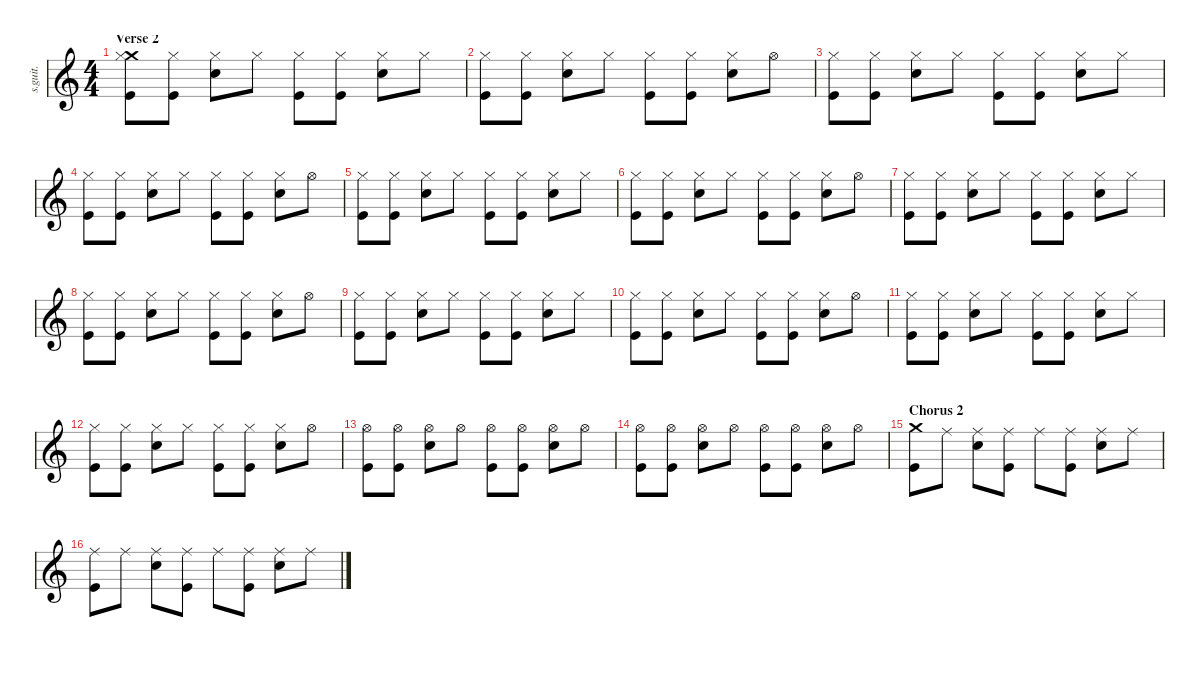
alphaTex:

\defaultSystemsLayout 4
\hideDynamics
\bracketExtendMode nobrackets
\track ("Will Champion" "s.guit.") {instrument percussion}
\staff {score}
\articulation defaults
\ts (4 4)
\section ("" "Verse 2")
\tempo (87 hide)
\clef g2
\ks c
("Crash medium (hit)" "Hi-Hat (closed)" "Kick (hit)").8{lyrics (0 "") lyrics (1 "") lyrics (2 "") lyrics (3 "") lyrics (4 "") dy mf} ("Hi-Hat (closed)" "Kick (hit)").8{lyrics (0 "") lyrics (1 "") lyrics (2 "") lyrics (3 "") lyrics (4 "")} ("Hi-Hat (closed)" "Snare (hit) 2").8{lyrics (0 "") lyrics (1 "") lyrics (2 "") lyrics (3 "") lyrics (4 "")} "Hi-Hat (closed)".8{lyrics (0 "") lyrics (1 "") lyrics (2 "") lyrics (3 "") lyrics (4 "")} ("Hi-Hat (closed)" "Kick (hit)").8{lyrics (0 "") lyrics (1 "") lyrics (2 "") lyrics (3 "") lyrics (4 "")} ("Hi-Hat (closed)" "Kick (hit)").8{lyrics (0 "") lyrics (1 "") lyrics (2 "") lyrics (3 "") lyrics (4 "")} ("Hi-Hat (closed)" "Snare (hit) 2").8{lyrics (0 "") lyrics (1 "") lyrics (2 "") lyrics (3 "") lyrics (4 "")} "Hi-Hat (closed)".8{lyrics (0 "") lyrics (1 "") lyrics (2 "") lyrics (3 "") lyrics (4 "")} |
("Kick (hit)" "Hi-Hat (closed)").8{lyrics (0 "") lyrics (1 "") lyrics (2 "") lyrics (3 "") lyrics (4 "")} ("Kick (hit)" "Hi-Hat (closed)").8{lyrics (0 "") lyrics (1 "") lyrics (2 "") lyrics (3 "") lyrics (4 "")} ("Snare (hit) 2" "Hi-Hat (closed)").8{lyrics (0 "") lyrics (1 "") lyrics (2 "") lyrics (3 "") lyrics (4 "")} "Hi-Hat (closed)".8{lyrics (0 "") lyrics (1 "") lyrics (2 "") lyrics (3 "") lyrics (4 "")} ("Kick (hit)" "Hi-Hat (closed)").8{lyrics (0 "") lyrics (1 "") lyrics (2 "") lyrics (3 "") lyrics (4 "")} ("Kick (hit)" "Hi-Hat (closed)").8{lyrics (0 "") lyrics (1 "") lyrics (2 "") lyrics (3 "") lyrics (4 "")} ("Snare (hit) 2" "Hi-Hat (closed)").8{lyrics (0 "") lyrics (1 "") lyrics (2 "") lyrics (3 "") lyrics (4 "")} "Hi-Hat (open)".8{lyrics (0 "") lyrics (1 "") lyrics (2 "") lyrics (3 "") lyrics (4 "")} |
("Hi-Hat (closed)" "Kick (hit)").8{lyrics (0 "") lyrics (1 "") lyrics (2 "") lyrics (3 "") lyrics (4 "")} ("Hi-Hat (closed)" "Kick (hit)").8{lyrics (0 "") lyrics (1 "") lyrics (2 "") lyrics (3 "") lyrics (4 "")} ("Hi-Hat (closed)" "Snare (hit) 2").8{lyrics (0 "") lyrics (1 "") lyrics (2 "") lyrics (3 "") lyrics (4 "")} "Hi-Hat (closed)".8{lyrics (0 "") lyrics (1 "") lyrics (2 "") lyrics (3 "") lyrics (4 "")} ("Hi-Hat (closed)" "Kick (hit)").8{lyrics (0 "") lyrics (1 "") lyrics (2 "") lyrics (3 "") lyrics (4 "")} ("Hi-Hat (closed)" "Kick (hit)").8{lyrics (0 "") lyrics (1 "") lyrics (2 "") lyrics (3 "") lyrics (4 "")} ("Hi-Hat (closed)" "Snare (hit) 2").8{lyrics (0 "") lyrics (1 "") lyrics (2 "") lyrics (3 "") lyrics (4 "")} "Hi-Hat (closed)".8{lyrics (0 "") lyrics (1 "") lyrics (2 "") lyrics (3 "") lyrics (4 "")} |
("Kick (hit)" "Hi-Hat (closed)").8{lyrics (0 "") lyrics (1 "") lyrics (2 "") lyrics (3 "") lyrics (4 "")} ("Kick (hit)" "Hi-Hat (closed)").8{lyrics (0 "") lyrics (1 "") lyrics (2 "") lyrics (3 "") lyrics (4 "")} ("Snare (hit) 2" "Hi-Hat (closed)").8{lyrics (0 "") lyrics (1 "") lyrics (2 "") lyrics (3 "") lyrics (4 "")} "Hi-Hat (closed)".8{lyrics (0 "") lyrics (1 "") lyrics (2 "") lyrics (3 "") lyrics (4 "")} ("Kick (hit)" "Hi-Hat (closed)").8{lyrics (0 "") lyrics (1 "") lyrics (2 "") lyrics (3 "") lyrics (4 "")} ("Kick (hit)" "Hi-Hat (closed)").8{lyrics (0 "") lyrics (1 "") lyrics (2 "") lyrics (3 "") lyrics (4 "")} ("Snare (hit) 2" "Hi-Hat (closed)").8{lyrics (0 "") lyrics (1 "") lyrics (2 "") lyrics (3 "") lyrics (4 "")} "Hi-Hat (open)".8{lyrics (0 "") lyrics (1 "") lyrics (2 "") lyrics (3 "") lyrics (4 "")} |
("Hi-Hat (closed)" "Kick (hit)").8{lyrics (0 "") lyrics (1 "") lyrics (2 "") lyrics (3 "") lyrics (4 "")} ("Hi-Hat (closed)" "Kick (hit)").8{lyrics (0 "") lyrics (1 "") lyrics (2 "") lyrics (3 "") lyrics (4 "")} ("Hi-Hat (closed)" "Snare (hit) 2").8{lyrics (0 "") lyrics (1 "") lyrics (2 "") lyrics (3 "") lyrics (4 "")} "Hi-Hat (closed)".8{lyrics (0 "") lyrics (1 "") lyrics (2 "") lyrics (3 "") lyrics (4 "")} ("Hi-Hat (closed)" "Kick (hit)").8{lyrics (0 "") lyrics (1 "") lyrics (2 "") lyrics (3 "") lyrics (4 "")} ("Hi-Hat (closed)" "Kick (hit)").8{lyrics (0 "") lyrics (1 "") lyrics (2 "") lyrics (3 "") lyrics (4 "")} ("Hi-Hat (closed)" "Snare (hit) 2").8{lyrics (0 "") lyrics (1 "") lyrics (2 "") lyrics (3 "") lyrics (4 "")} "Hi-Hat (closed)".8{lyrics (0 "") lyrics (1 "") lyrics (2 "") lyrics (3 "") lyrics (4 "")} |
("Kick (hit)" "Hi-Hat (closed)").8{lyrics (0 "") lyrics (1 "") lyrics (2 "") lyrics (3 "") lyrics (4 "")} ("Kick (hit)" "Hi-Hat (closed)").8{lyrics (0 "") lyrics (1 "") lyrics (2 "") lyrics (3 "") lyrics (4 "")} ("Snare (hit) 2" "Hi-Hat (closed)").8{lyrics (0 "") lyrics (1 "") lyrics (2 "") lyrics (3 "") lyrics (4 "")} "Hi-Hat (closed)".8{lyrics (0 "") lyrics (1 "") lyrics (2 "") lyrics (3 "") lyrics (4 "")} ("Kick (hit)" "Hi-Hat (closed)").8{lyrics (0 "") lyrics (1 "") lyrics (2 "") lyrics (3 "") lyrics (4 "")} ("Kick (hit)" "Hi-Hat (closed)").8{lyrics (0 "") lyrics (1 "") lyrics (2 "") lyrics (3 "") lyrics (4 "")} ("Snare (hit) 2" "Hi-Hat (closed)").8{lyrics (0 "") lyrics (1 "") lyrics (2 "") lyrics (3 "") lyrics (4 "")} "Hi-Hat (open)".8{lyrics (0 "") lyrics (1 "") lyrics (2 "") lyrics (3 "") lyrics (4 "")} |
("Hi-Hat (closed)" "Kick (hit)").8{lyrics (0 "") lyrics (1 "") lyrics (2 "") lyrics (3 "") lyrics (4 "")} ("Hi-Hat (closed)" "Kick (hit)").8{lyrics (0 "") lyrics (1 "") lyrics (2 "") lyrics (3 "") lyrics (4 "")} ("Hi-Hat (closed)" "Snare (hit) 2").8{lyrics (0 "") lyrics (1 "") lyrics (2 "") lyrics (3 "") lyrics (4 "")} "Hi-Hat (closed)".8{lyrics (0 "") lyrics (1 "") lyrics (2 "") lyrics (3 "") lyrics (4 "")} ("Hi-Hat (closed)" "Kick (hit)").8{lyrics (0 "") lyrics (1 "") lyrics (2 "") lyrics (3 "") lyrics (4 "")} ("Hi-Hat (closed)" "Kick (hit)").8{lyrics (0 "") lyrics (1 "") lyrics (2 "") lyrics (3 "") lyrics (4 "")} ("Hi-Hat (closed)" "Snare (hit) 2").8{lyrics (0 "") lyrics (1 "") lyrics (2 "") lyrics (3 "") lyrics (4 "")} "Hi-Hat (closed)".8{lyrics (0 "") lyrics (1 "") lyrics (2 "") lyrics (3 "") lyrics (4 "")} |
("Kick (hit)" "Hi-Hat (closed)").8{lyrics (0 "") lyrics (1 "") lyrics (2 "") lyrics (3 "") lyrics (4 "")} ("Kick (hit)" "Hi-Hat (closed)").8{lyrics (0 "") lyrics (1 "") lyrics (2 "") lyrics (3 "") lyrics (4 "")} ("Snare (hit) 2" "Hi-Hat (closed)").8{lyrics (0 "") lyrics (1 "") lyrics (2 "") lyrics (3 "") lyrics (4 "")} "Hi-Hat (closed)".8{lyrics (0 "") lyrics (1 "") lyrics (2 "") lyrics (3 "") lyrics (4 "")} ("Kick (hit)" "Hi-Hat (closed)").8{lyrics (0 "") lyrics (1 "") lyrics (2 "") lyrics (3 "") lyrics (4 "")} ("Kick (hit)" "Hi-Hat (closed)").8{lyrics (0 "") lyrics (1 "") lyrics (2 "") lyrics (3 "") lyrics (4 "")} ("Snare (hit) 2" "Hi-Hat (closed)").8{lyrics (0 "") lyrics (1 "") lyrics (2 "") lyrics (3 "") lyrics (4 "")} "Hi-Hat (open)".8{lyrics (0 "") lyrics (1 "") lyrics (2 "") lyrics (3 "") lyrics (4 "")} |
("Hi-Hat (closed)" "Kick (hit)").8{lyrics (0 "") lyrics (1 "") lyrics (2 "") lyrics (3 "") lyrics (4 "")} ("Hi-Hat (closed)" "Kick (hit)").8{lyrics (0 "") lyrics (1 "") lyrics (2 "") lyrics (3 "") lyrics (4 "")} ("Hi-Hat (closed)" "Snare (hit) 2").8{lyrics (0 "") lyrics (1 "") lyrics (2 "") lyrics (3 "") lyrics (4 "")} "Hi-Hat (closed)".8{lyrics (0 "") lyrics (1 "") lyrics (2 "") lyrics (3 "") lyrics (4 "")} ("Hi-Hat (closed)" "Kick (hit)").8{lyrics (0 "") lyrics (1 "") lyrics (2 "") lyrics (3 "") lyrics (4 "")} ("Hi-Hat (closed)" "Kick (hit)").8{lyrics (0 "") lyrics (1 "") lyrics (2 "") lyrics (3 "") lyrics (4 "")} ("Hi-Hat (closed)" "Snare (hit) 2").8{lyrics (0 "") lyrics (1 "") lyrics (2 "") lyrics (3 "") lyrics (4 "")} "Hi-Hat (closed)".8{lyrics (0 "") lyrics (1 "") lyrics (2 "") lyrics (3 "") lyrics (4 "")} |
("Kick (hit)" "Hi-Hat (closed)").8{lyrics (0 "") lyrics (1 "") lyrics (2 "") lyrics (3 "") lyrics (4 "")} ("Kick (hit)" "Hi-Hat (closed)").8{lyrics (0 "") lyrics (1 "") lyrics (2 "") lyrics (3 "") lyrics (4 "")} ("Snare (hit) 2" "Hi-Hat (closed)").8{lyrics (0 "") lyrics (1 "") lyrics (2 "") lyrics (3 "") lyrics (4 "")} "Hi-Hat (closed)".8{lyrics (0 "") lyrics (1 "") lyrics (2 "") lyrics (3 "") lyrics (4 "")} ("Kick (hit)" "Hi-Hat (closed)").8{lyrics (0 "") lyrics (1 "") lyrics (2 "") lyrics (3 "") lyrics (4 "")} ("Kick (hit)" "Hi-Hat (closed)").8{lyrics (0 "") lyrics (1 "") lyrics (2 "") lyrics (3 "") lyrics (4 "")} ("Snare (hit) 2" "Hi-Hat (closed)").8{lyrics (0 "") lyrics (1 "") lyrics (2 "") lyrics (3 "") lyrics (4 "")} "Hi-Hat (open)".8{lyrics (0 "") lyrics (1 "") lyrics (2 "") lyrics (3 "") lyrics (4 "")} |
("Hi-Hat (closed)" "Kick (hit)").8{lyrics (0 "") lyrics (1 "") lyrics (2 "") lyrics (3 "") lyrics (4 "")} ("Hi-Hat (closed)" "Kick (hit)").8{lyrics (0 "") lyrics (1 "") lyrics (2 "") lyrics (3 "") lyrics (4 "")} ("Hi-Hat (closed)" "Snare (hit) 2").8{lyrics (0 "") lyrics (1 "") lyrics (2 "") lyrics (3 "") lyrics (4 "")} "Hi-Hat (closed)".8{lyrics (0 "") lyrics (1 "") lyrics (2 "") lyrics (3 "") lyrics (4 "")} ("Hi-Hat (closed)" "Kick (hit)").8{lyrics (0 "") lyrics (1 "") lyrics (2 "") lyrics (3 "") lyrics (4 "")} ("Hi-Hat (closed)" "Kick (hit)").8{lyrics (0 "") lyrics (1 "") lyrics (2 "") lyrics (3 "") lyrics (4 "")} ("Hi-Hat (closed)" "Snare (hit) 2").8{lyrics (0 "") lyrics (1 "") lyrics (2 "") lyrics (3 "") lyrics (4 "")} "Hi-Hat (closed)".8{lyrics (0 "") lyrics (1 "") lyrics (2 "") lyrics (3 "") lyrics (4 "")} |
("Kick (hit)" "Hi-Hat (closed)").8{lyrics (0 "") lyrics (1 "") lyrics (2 "") lyrics (3 "") lyrics (4 "")} ("Kick (hit)" "Hi-Hat (closed)").8{lyrics (0 "") lyrics (1 "") lyrics (2 "") lyrics (3 "") lyrics (4 "")} ("Snare (hit) 2" "Hi-Hat (closed)").8{lyrics (0 "") lyrics (1 "") lyrics (2 "") lyrics (3 "") lyrics (4 "")} "Hi-Hat (closed)".8{lyrics (0 "") lyrics (1 "") lyrics (2 "") lyrics (3 "") lyrics (4 "")} ("Kick (hit)" "Hi-Hat (closed)").8{lyrics (0 "") lyrics (1 "") lyrics (2 "") lyrics (3 "") lyrics (4 "")} ("Kick (hit)" "Hi-Hat (closed)").8{lyrics (0 "") lyrics (1 "") lyrics (2 "") lyrics (3 "") lyrics (4 "")} ("Snare (hit) 2" "Hi-Hat (closed)").8{lyrics (0 "") lyrics (1 "") lyrics (2 "") lyrics (3 "") lyrics (4 "")} "Hi-Hat (open)".8{lyrics (0 "") lyrics (1 "") lyrics (2 "") lyrics (3 "") lyrics (4 "")} |
("Hi-Hat (open)" "Kick (hit)").8{lyrics (0 "") lyrics (1 "") lyrics (2 "") lyrics (3 "") lyrics (4 "")} ("Hi-Hat (open)" "Kick (hit)").8{lyrics (0 "") lyrics (1 "") lyrics (2 "") lyrics (3 "") lyrics (4 "")} ("Hi-Hat (open)" "Snare (hit) 2").8{lyrics (0 "") lyrics (1 "") lyrics (2 "") lyrics (3 "") lyrics (4 "")} "Hi-Hat (open)".8{lyrics (0 "") lyrics (1 "") lyrics (2 "") lyrics (3 "") lyrics (4 "")} ("Hi-Hat (open)" "Kick (hit)").8{lyrics (0 "") lyrics (1 "") lyrics (2 "") lyrics (3 "") lyrics (4 "")} ("Hi-Hat (open)" "Kick (hit)").8{lyrics (0 "") lyrics (1 "") lyrics (2 "") lyrics (3 "") lyrics (4 "")} ("Hi-Hat (open)" "Snare (hit) 2").8{lyrics (0 "") lyrics (1 "") lyrics (2 "") lyrics (3 "") lyrics (4 "")} "Hi-Hat (open)".8{lyrics (0 "") lyrics (1 "") lyrics (2 "") lyrics (3 "") lyrics (4 "")} |
("Hi-Hat (open)" "Kick (hit)").8{lyrics (0 "") lyrics (1 "") lyrics (2 "") lyrics (3 "") lyrics (4 "")} ("Hi-Hat (open)" "Kick (hit)").8{lyrics (0 "") lyrics (1 "") lyrics (2 "") lyrics (3 "") lyrics (4 "")} ("Hi-Hat (open)" "Snare (hit) 2").8{lyrics (0 "") lyrics (1 "") lyrics (2 "") lyrics (3 "") lyrics (4 "")} "Hi-Hat (open)".8{lyrics (0 "") lyrics (1 "") lyrics (2 "") lyrics (3 "") lyrics (4 "")} ("Hi-Hat (open)" "Kick (hit)").8{lyrics (0 "") lyrics (1 "") lyrics (2 "") lyrics (3 "") lyrics (4 "")} ("Hi-Hat (open)" "Kick (hit)").8{lyrics (0 "") lyrics (1 "") lyrics (2 "") lyrics (3 "") lyrics (4 "")} ("Hi-Hat (open)" "Snare (hit) 2").8{lyrics (0 "") lyrics (1 "") lyrics (2 "") lyrics (3 "") lyrics (4 "")} "Hi-Hat (open)".8{lyrics (0 "") lyrics (1 "") lyrics (2 "") lyrics (3 "") lyrics (4 "")} |
\section ("" "Chorus 2")
("Crash medium (hit)" "Kick (hit)").8{lyrics (0 "") lyrics (1 "") lyrics (2 "") lyrics (3 "") lyrics (4 "")} "Ride (middle)".8{lyrics (0 "") lyrics (1 "") lyrics (2 "") lyrics (3 "") lyrics (4 "") dy f} ("Ride (middle)" "Snare (hit) 2").8{lyrics (0 "") lyrics (1 "") lyrics (2 "") lyrics (3 "") lyrics (4 "")} ("Ride (middle)" "Kick (hit)").8{lyrics (0 "") lyrics (1 "") lyrics (2 "") lyrics (3 "") lyrics (4 "")} "Ride (middle)".8{lyrics (0 "") lyrics (1 "") lyrics (2 "") lyrics (3 "") lyrics (4 "")} ("Ride (middle)" "Kick (hit)").8{lyrics (0 "") lyrics (1 "") lyrics (2 "") lyrics (3 "") lyrics (4 "")} ("Ride (middle)" "Snare (hit) 2").8{lyrics (0 "") lyrics (1 "") lyrics (2 "") lyrics (3 "") lyrics (4 "")} "Ride (middle)".8{lyrics (0 "") lyrics (1 "") lyrics (2 "") lyrics (3 "") lyrics (4 "")} |
("Ride (middle)" "Kick (hit)").8{lyrics (0 "") lyrics (1 "") lyrics (2 "") lyrics (3 "") lyrics (4 "")} "Ride (middle)".8{lyrics (0 "") lyrics (1 "") lyrics (2 "") lyrics (3 "") lyrics (4 "")} ("Ride (middle)" "Snare (hit) 2").8{lyrics (0 "") lyrics (1 "") lyrics (2 "") lyrics (3 "") lyrics (4 "")} ("Ride (middle)" "Kick (hit)").8{lyrics (0 "") lyrics (1 "") lyrics (2 "") lyrics (3 "") lyrics (4 "")} "Ride (middle)".8{lyrics (0 "") lyrics (1 "") lyrics (2 "") lyrics (3 "") lyrics (4 "")} ("Ride (middle)" "Kick (hit)").8{lyrics (0 "") lyrics (1 "") lyrics (2 "") lyrics (3 "") lyrics (4 "")} ("Ride (middle)" "Snare (hit) 2").8{lyrics (0 "") lyrics (1 "") lyrics (2 "") lyrics (3 "") lyrics (4 "")} "Ride (middle)".8{lyrics (0 "") lyrics (1 "") lyrics (2 "") lyrics (3 "") lyrics (4 "")}
